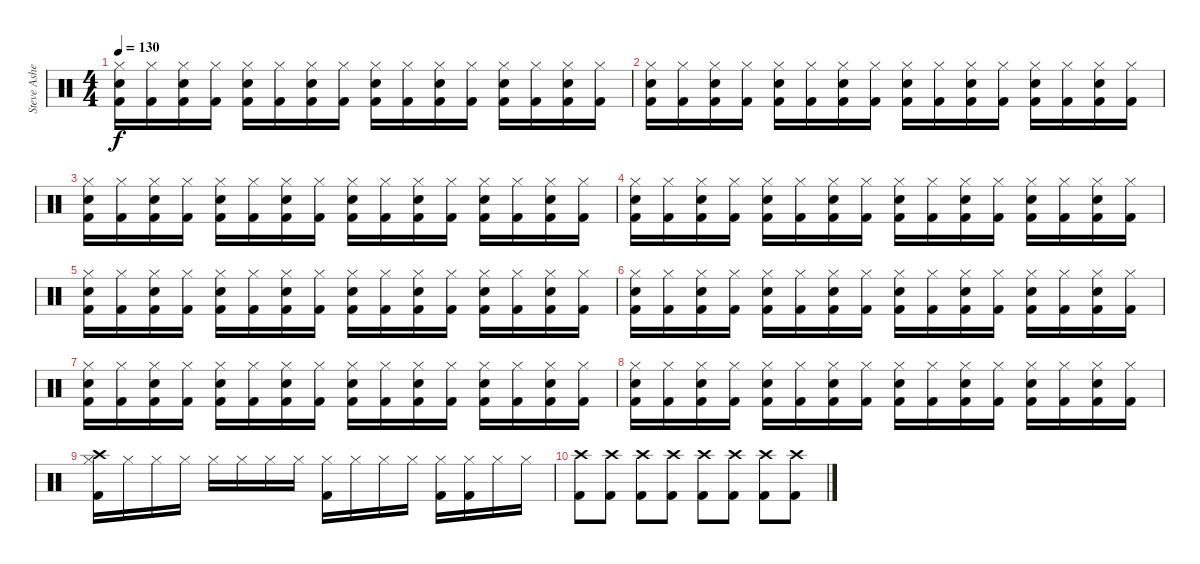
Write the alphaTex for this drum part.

\track ("Steve Asheim" "Steve Ashe") {instrument percussion}
\staff {score}
\articulation defaults
\ts (4 4)
\tempo 130
\clef neutral
\ks c
("Kick (hit) 2" "Electric Snare (hit)" "Hi-Hat (closed)").16{dy f} ("Kick (hit) 2" "Hi-Hat (closed)").16 ("Kick (hit) 2" "Electric Snare (hit)" "Hi-Hat (closed)").16 ("Kick (hit) 2" "Hi-Hat (closed)").16 ("Kick (hit) 2" "Electric Snare (hit)" "Hi-Hat (closed)").16 ("Kick (hit) 2" "Hi-Hat (closed)").16 ("Kick (hit) 2" "Electric Snare (hit)" "Hi-Hat (closed)").16 ("Kick (hit) 2" "Hi-Hat (closed)").16 ("Kick (hit) 2" "Electric Snare (hit)" "Hi-Hat (closed)").16 ("Kick (hit) 2" "Hi-Hat (closed)").16 ("Kick (hit) 2" "Electric Snare (hit)" "Hi-Hat (closed)").16 ("Kick (hit) 2" "Hi-Hat (closed)").16 ("Kick (hit) 2" "Electric Snare (hit)" "Hi-Hat (closed)").16 ("Kick (hit) 2" "Hi-Hat (closed)").16 ("Kick (hit) 2" "Electric Snare (hit)" "Hi-Hat (closed)").16 ("Kick (hit) 2" "Hi-Hat (closed)").16 |
("Kick (hit) 2" "Electric Snare (hit)" "Hi-Hat (closed)").16 ("Kick (hit) 2" "Hi-Hat (closed)").16 ("Kick (hit) 2" "Electric Snare (hit)" "Hi-Hat (closed)").16 ("Kick (hit) 2" "Hi-Hat (closed)").16 ("Kick (hit) 2" "Electric Snare (hit)" "Hi-Hat (closed)").16 ("Kick (hit) 2" "Hi-Hat (closed)").16 ("Kick (hit) 2" "Electric Snare (hit)" "Hi-Hat (closed)").16 ("Kick (hit) 2" "Hi-Hat (closed)").16 ("Kick (hit) 2" "Electric Snare (hit)" "Hi-Hat (closed)").16 ("Kick (hit) 2" "Hi-Hat (closed)").16 ("Kick (hit) 2" "Electric Snare (hit)" "Hi-Hat (closed)").16 ("Kick (hit) 2" "Hi-Hat (closed)").16 ("Kick (hit) 2" "Electric Snare (hit)" "Hi-Hat (closed)").16 ("Kick (hit) 2" "Hi-Hat (closed)").16 ("Kick (hit) 2" "Electric Snare (hit)" "Hi-Hat (closed)").16 ("Kick (hit) 2" "Hi-Hat (closed)").16 |
("Kick (hit) 2" "Electric Snare (hit)" "Hi-Hat (closed)").16 ("Kick (hit) 2" "Hi-Hat (closed)").16 ("Kick (hit) 2" "Electric Snare (hit)" "Hi-Hat (closed)").16 ("Kick (hit) 2" "Hi-Hat (closed)").16 ("Kick (hit) 2" "Electric Snare (hit)" "Hi-Hat (closed)").16 ("Kick (hit) 2" "Hi-Hat (closed)").16 ("Kick (hit) 2" "Electric Snare (hit)" "Hi-Hat (closed)").16 ("Kick (hit) 2" "Hi-Hat (closed)").16 ("Kick (hit) 2" "Electric Snare (hit)" "Hi-Hat (closed)").16 ("Kick (hit) 2" "Hi-Hat (closed)").16 ("Kick (hit) 2" "Electric Snare (hit)" "Hi-Hat (closed)").16 ("Kick (hit) 2" "Hi-Hat (closed)").16 ("Kick (hit) 2" "Electric Snare (hit)" "Hi-Hat (closed)").16 ("Kick (hit) 2" "Hi-Hat (closed)").16 ("Kick (hit) 2" "Electric Snare (hit)" "Hi-Hat (closed)").16 ("Kick (hit) 2" "Hi-Hat (closed)").16 |
("Kick (hit) 2" "Electric Snare (hit)" "Hi-Hat (closed)").16 ("Kick (hit) 2" "Hi-Hat (closed)").16 ("Kick (hit) 2" "Electric Snare (hit)" "Hi-Hat (closed)").16 ("Kick (hit) 2" "Hi-Hat (closed)").16 ("Kick (hit) 2" "Electric Snare (hit)" "Hi-Hat (closed)").16 ("Kick (hit) 2" "Hi-Hat (closed)").16 ("Kick (hit) 2" "Electric Snare (hit)" "Hi-Hat (closed)").16 ("Kick (hit) 2" "Hi-Hat (closed)").16 ("Kick (hit) 2" "Electric Snare (hit)" "Hi-Hat (closed)").16 ("Kick (hit) 2" "Hi-Hat (closed)").16 ("Kick (hit) 2" "Electric Snare (hit)" "Hi-Hat (closed)").16 ("Kick (hit) 2" "Hi-Hat (closed)").16 ("Kick (hit) 2" "Electric Snare (hit)" "Hi-Hat (closed)").16 ("Kick (hit) 2" "Hi-Hat (closed)").16 ("Kick (hit) 2" "Electric Snare (hit)" "Hi-Hat (closed)").16 ("Kick (hit) 2" "Hi-Hat (closed)").16 |
("Kick (hit) 2" "Electric Snare (hit)" "Hi-Hat (closed)").16 ("Kick (hit) 2" "Hi-Hat (closed)").16 ("Kick (hit) 2" "Electric Snare (hit)" "Hi-Hat (closed)").16 ("Kick (hit) 2" "Hi-Hat (closed)").16 ("Kick (hit) 2" "Electric Snare (hit)" "Hi-Hat (closed)").16 ("Kick (hit) 2" "Hi-Hat (closed)").16 ("Kick (hit) 2" "Electric Snare (hit)" "Hi-Hat (closed)").16 ("Kick (hit) 2" "Hi-Hat (closed)").16 ("Kick (hit) 2" "Electric Snare (hit)" "Hi-Hat (closed)").16 ("Kick (hit) 2" "Hi-Hat (closed)").16 ("Kick (hit) 2" "Electric Snare (hit)" "Hi-Hat (closed)").16 ("Kick (hit) 2" "Hi-Hat (closed)").16 ("Kick (hit) 2" "Electric Snare (hit)" "Hi-Hat (closed)").16 ("Kick (hit) 2" "Hi-Hat (closed)").16 ("Kick (hit) 2" "Electric Snare (hit)" "Hi-Hat (closed)").16 ("Kick (hit) 2" "Hi-Hat (closed)").16 |
("Kick (hit) 2" "Electric Snare (hit)" "Hi-Hat (closed)").16 ("Kick (hit) 2" "Hi-Hat (closed)").16 ("Kick (hit) 2" "Electric Snare (hit)" "Hi-Hat (closed)").16 ("Kick (hit) 2" "Hi-Hat (closed)").16 ("Kick (hit) 2" "Electric Snare (hit)" "Hi-Hat (closed)").16 ("Kick (hit) 2" "Hi-Hat (closed)").16 ("Kick (hit) 2" "Electric Snare (hit)" "Hi-Hat (closed)").16 ("Kick (hit) 2" "Hi-Hat (closed)").16 ("Kick (hit) 2" "Electric Snare (hit)" "Hi-Hat (closed)").16 ("Kick (hit) 2" "Hi-Hat (closed)").16 ("Kick (hit) 2" "Electric Snare (hit)" "Hi-Hat (closed)").16 ("Kick (hit) 2" "Hi-Hat (closed)").16 ("Kick (hit) 2" "Electric Snare (hit)" "Hi-Hat (closed)").16 ("Kick (hit) 2" "Hi-Hat (closed)").16 ("Kick (hit) 2" "Electric Snare (hit)" "Hi-Hat (closed)").16 ("Kick (hit) 2" "Hi-Hat (closed)").16 |
("Kick (hit) 2" "Electric Snare (hit)" "Hi-Hat (closed)").16 ("Kick (hit) 2" "Hi-Hat (closed)").16 ("Kick (hit) 2" "Electric Snare (hit)" "Hi-Hat (closed)").16 ("Kick (hit) 2" "Hi-Hat (closed)").16 ("Kick (hit) 2" "Electric Snare (hit)" "Hi-Hat (closed)").16 ("Kick (hit) 2" "Hi-Hat (closed)").16 ("Kick (hit) 2" "Electric Snare (hit)" "Hi-Hat (closed)").16 ("Kick (hit) 2" "Hi-Hat (closed)").16 ("Kick (hit) 2" "Electric Snare (hit)" "Hi-Hat (closed)").16 ("Kick (hit) 2" "Hi-Hat (closed)").16 ("Kick (hit) 2" "Electric Snare (hit)" "Hi-Hat (closed)").16 ("Kick (hit) 2" "Hi-Hat (closed)").16 ("Kick (hit) 2" "Electric Snare (hit)" "Hi-Hat (closed)").16 ("Kick (hit) 2" "Hi-Hat (closed)").16 ("Kick (hit) 2" "Electric Snare (hit)" "Hi-Hat (closed)").16 ("Kick (hit) 2" "Hi-Hat (closed)").16 |
("Kick (hit) 2" "Electric Snare (hit)" "Hi-Hat (closed)").16 ("Kick (hit) 2" "Hi-Hat (closed)").16 ("Kick (hit) 2" "Electric Snare (hit)" "Hi-Hat (closed)").16 ("Kick (hit) 2" "Hi-Hat (closed)").16 ("Kick (hit) 2" "Electric Snare (hit)" "Hi-Hat (closed)").16 ("Kick (hit) 2" "Hi-Hat (closed)").16 ("Kick (hit) 2" "Electric Snare (hit)" "Hi-Hat (closed)").16 ("Kick (hit) 2" "Hi-Hat (closed)").16 ("Kick (hit) 2" "Electric Snare (hit)" "Hi-Hat (closed)").16 ("Kick (hit) 2" "Hi-Hat (closed)").16 ("Kick (hit) 2" "Electric Snare (hit)" "Hi-Hat (closed)").16 ("Kick (hit) 2" "Hi-Hat (closed)").16 ("Kick (hit) 2" "Electric Snare (hit)" "Hi-Hat (closed)").16 ("Kick (hit) 2" "Hi-Hat (closed)").16 ("Kick (hit) 2" "Electric Snare (hit)" "Hi-Hat (closed)").16 ("Kick (hit) 2" "Hi-Hat (closed)").16 |
("Kick (hit) 2" "Hi-Hat (closed)" "Crash high (hit)").16 "Hi-Hat (closed)".16 "Hi-Hat (closed)".16 "Hi-Hat (closed)".16 "Hi-Hat (closed)".16 "Hi-Hat (closed)".16 "Hi-Hat (closed)".16 "Hi-Hat (closed)".16 ("Kick (hit) 2" "Hi-Hat (closed)").16 "Hi-Hat (closed)".16 "Hi-Hat (closed)".16 "Hi-Hat (closed)".16 ("Kick (hit) 2" "Hi-Hat (closed)").16 ("Kick (hit) 2" "Hi-Hat (closed)").16 "Hi-Hat (closed)".16 "Hi-Hat (closed)".16 |
("Kick (hit) 2" "Crash high (hit)").8 ("Kick (hit) 2" "Crash high (hit)").8 ("Kick (hit) 2" "Crash high (hit)").8 ("Kick (hit) 2" "Crash high (hit)").8 ("Kick (hit) 2" "Crash high (hit)").8 ("Kick (hit) 2" "Crash high (hit)").8 ("Kick (hit) 2" "Crash high (hit)").8 ("Kick (hit) 2" "Crash high (hit)").8
